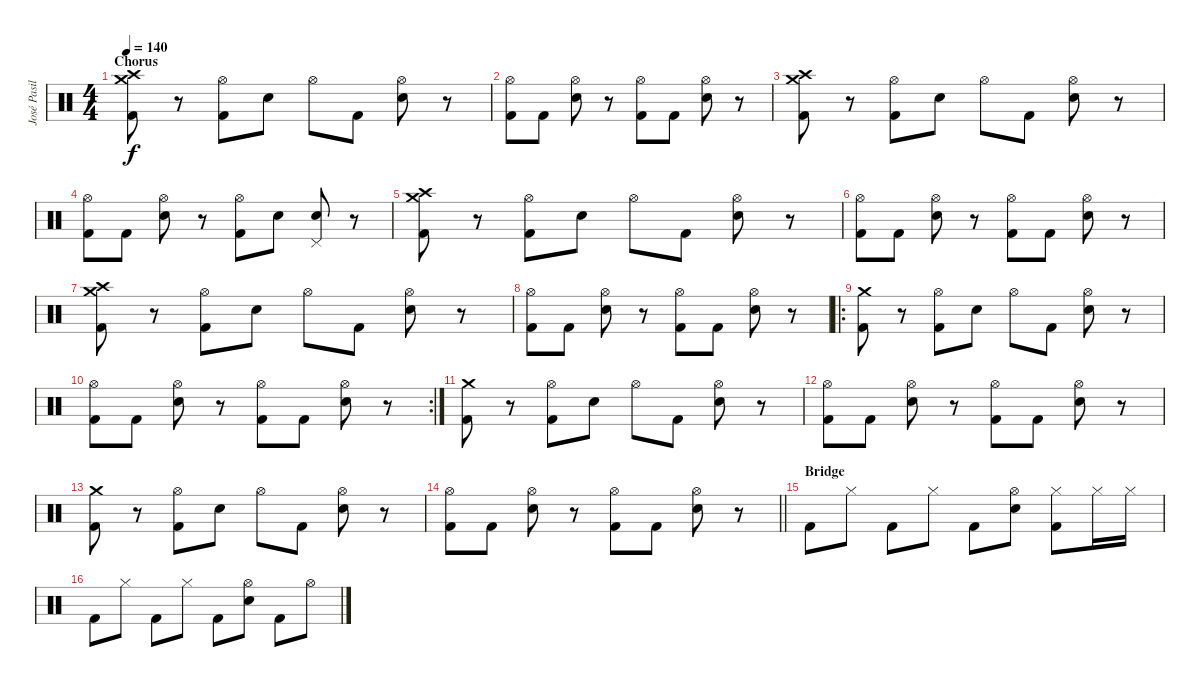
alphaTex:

\track ("José Pasillas [Drums]" "José Pasil") {instrument percussion}
\staff {score}
\articulation defaults
\ts (4 4)
\section ("" "Chorus")
\tempo 140
\clef neutral
\ks c
("Kick (hit) 2" "Crash high (hit)" "Crash medium (hit)").8{dy f} r.8 ("Kick (hit) 2" "Hi-Hat (open)").8 "Electric Snare (hit)".8 "Hi-Hat (open)".8 "Kick (hit) 2".8 ("Electric Snare (hit)" "Hi-Hat (open)").8 r.8 |
("Kick (hit) 2" "Hi-Hat (open)").8 "Kick (hit) 2".8 ("Electric Snare (hit)" "Hi-Hat (open)").8 r.8 ("Kick (hit) 2" "Hi-Hat (open)").8 "Kick (hit) 2".8 ("Electric Snare (hit)" "Hi-Hat (open)").8 r.8 |
("Kick (hit) 2" "Crash high (hit)" "Crash medium (hit)").8 r.8 ("Kick (hit) 2" "Hi-Hat (open)").8 "Electric Snare (hit)".8 "Hi-Hat (open)".8 "Kick (hit) 2".8 ("Electric Snare (hit)" "Hi-Hat (open)").8 r.8 |
("Kick (hit) 2" "Hi-Hat (open)").8 "Kick (hit) 2".8 ("Electric Snare (hit)" "Hi-Hat (open)").8 r.8 ("Kick (hit) 2" "Hi-Hat (open)").8 "Electric Snare (hit)".8 ("Electric Snare (hit)" "Pedal Hi-Hat (hit)").8 r.8 |
("Kick (hit) 2" "Crash high (hit)" "Crash medium (hit)").8 r.8 ("Kick (hit) 2" "Hi-Hat (open)").8 "Electric Snare (hit)".8 "Hi-Hat (open)".8 "Kick (hit) 2".8 ("Electric Snare (hit)" "Hi-Hat (open)").8 r.8 |
("Kick (hit) 2" "Hi-Hat (open)").8 "Kick (hit) 2".8 ("Electric Snare (hit)" "Hi-Hat (open)").8 r.8 ("Kick (hit) 2" "Hi-Hat (open)").8 "Kick (hit) 2".8 ("Electric Snare (hit)" "Hi-Hat (open)").8 r.8 |
("Kick (hit) 2" "Crash high (hit)" "Crash medium (hit)").8 r.8 ("Kick (hit) 2" "Hi-Hat (open)").8 "Electric Snare (hit)".8 "Hi-Hat (open)".8 "Kick (hit) 2".8 ("Electric Snare (hit)" "Hi-Hat (open)").8 r.8 |
("Kick (hit) 2" "Hi-Hat (open)").8 "Kick (hit) 2".8 ("Electric Snare (hit)" "Hi-Hat (open)").8 r.8 ("Kick (hit) 2" "Hi-Hat (open)").8 "Kick (hit) 2".8 ("Electric Snare (hit)" "Hi-Hat (open)").8 r.8 |
\ro
("Kick (hit) 2" "Crash medium (hit)").8 r.8 ("Kick (hit) 2" "Hi-Hat (open)").8 "Electric Snare (hit)".8 "Hi-Hat (open)".8 "Kick (hit) 2".8 ("Electric Snare (hit)" "Hi-Hat (open)").8 r.8 |
\rc 2
("Kick (hit) 2" "Hi-Hat (open)").8 "Kick (hit) 2".8 ("Electric Snare (hit)" "Hi-Hat (open)").8 r.8 ("Kick (hit) 2" "Hi-Hat (open)").8 "Kick (hit) 2".8 ("Electric Snare (hit)" "Hi-Hat (open)").8 r.8 |
("Kick (hit) 2" "Crash medium (hit)").8 r.8 ("Kick (hit) 2" "Hi-Hat (open)").8 "Electric Snare (hit)".8 "Hi-Hat (open)".8 "Kick (hit) 2".8 ("Electric Snare (hit)" "Hi-Hat (open)").8 r.8 |
("Kick (hit) 2" "Hi-Hat (open)").8 "Kick (hit) 2".8 ("Electric Snare (hit)" "Hi-Hat (open)").8 r.8 ("Kick (hit) 2" "Hi-Hat (open)").8 "Kick (hit) 2".8 ("Electric Snare (hit)" "Hi-Hat (open)").8 r.8 |
("Kick (hit) 2" "Crash medium (hit)").8 r.8 ("Kick (hit) 2" "Hi-Hat (open)").8 "Electric Snare (hit)".8 "Hi-Hat (open)".8 "Kick (hit) 2".8 ("Electric Snare (hit)" "Hi-Hat (open)").8 r.8 |
\barLineRight lightlight
("Kick (hit) 2" "Hi-Hat (open)").8 "Kick (hit) 2".8 ("Electric Snare (hit)" "Hi-Hat (open)").8 r.8 ("Kick (hit) 2" "Hi-Hat (open)").8 "Kick (hit) 2".8 ("Electric Snare (hit)" "Hi-Hat (open)").8 r.8 |
\section ("" "Bridge")
"Kick (hit) 2".8 "Hi-Hat (closed)".8 "Kick (hit) 2".8 "Hi-Hat (closed)".8 "Kick (hit) 2".8 ("Snare (hit) 2" "Hi-Hat (open)").8 ("Kick (hit) 2" "Hi-Hat (closed)").8 "Hi-Hat (closed)".16 "Hi-Hat (closed)".16 |
"Kick (hit) 2".8 "Hi-Hat (closed)".8 "Kick (hit) 2".8 "Hi-Hat (closed)".8 "Kick (hit) 2".8 ("Snare (hit) 2" "Hi-Hat (open)").8 "Kick (hit) 2".8 "Hi-Hat (open)".8
